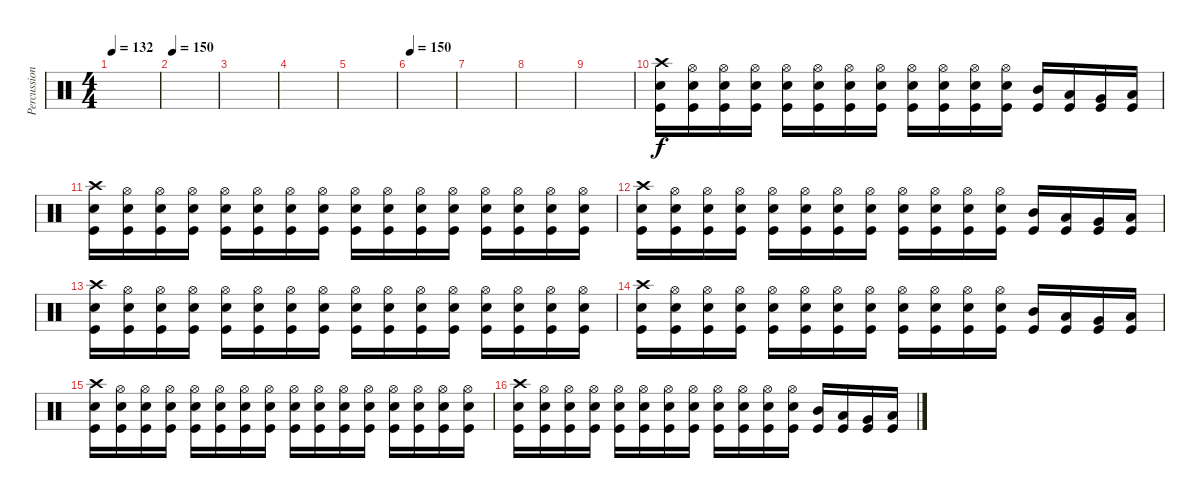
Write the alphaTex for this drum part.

\track ("Percussion" "Percussion") {instrument percussion}
\staff {score}
\articulation defaults
\ts (4 4)
\tempo 132
\clef neutral
\ks c
|
\tempo 150
|
|
|
|
\tempo 150
|
|
|
|
("Crash high (hit)" "Electric Snare (hit)" "Kick (hit)").16 ("Hi-Hat (open)" "Electric Snare (hit)" "Kick (hit)").16 ("Hi-Hat (open)" "Electric Snare (hit)" "Kick (hit)").16 ("Hi-Hat (open)" "Electric Snare (hit)" "Kick (hit)").16 ("Hi-Hat (open)" "Electric Snare (hit)" "Kick (hit)").16 ("Hi-Hat (open)" "Electric Snare (hit)" "Kick (hit)").16 ("Hi-Hat (open)" "Electric Snare (hit)" "Kick (hit)").16 ("Hi-Hat (open)" "Electric Snare (hit)" "Kick (hit)").16 ("Hi-Hat (open)" "Electric Snare (hit)" "Kick (hit)").16 ("Hi-Hat (open)" "Electric Snare (hit)" "Kick (hit)").16 ("Hi-Hat (open)" "Electric Snare (hit)" "Kick (hit)").16 ("Hi-Hat (open)" "Electric Snare (hit)" "Kick (hit)").16 ("Mid Tom (hit)" "Kick (hit)").16 ("Low Tom (hit)" "Kick (hit)").16 ("Very Low Tom (hit)" "Kick (hit)").16 ("Low Floor Tom (hit)" "Kick (hit)").16 |
("Crash high (hit)" "Electric Snare (hit)" "Kick (hit)").16 ("Hi-Hat (open)" "Electric Snare (hit)" "Kick (hit)").16 ("Hi-Hat (open)" "Electric Snare (hit)" "Kick (hit)").16 ("Hi-Hat (open)" "Electric Snare (hit)" "Kick (hit)").16 ("Hi-Hat (open)" "Electric Snare (hit)" "Kick (hit)").16 ("Hi-Hat (open)" "Electric Snare (hit)" "Kick (hit)").16 ("Hi-Hat (open)" "Electric Snare (hit)" "Kick (hit)").16 ("Hi-Hat (open)" "Electric Snare (hit)" "Kick (hit)").16 ("Hi-Hat (open)" "Electric Snare (hit)" "Kick (hit)").16 ("Hi-Hat (open)" "Electric Snare (hit)" "Kick (hit)").16 ("Hi-Hat (open)" "Electric Snare (hit)" "Kick (hit)").16 ("Hi-Hat (open)" "Electric Snare (hit)" "Kick (hit)").16 ("Hi-Hat (open)" "Electric Snare (hit)" "Kick (hit)").16 ("Hi-Hat (open)" "Electric Snare (hit)" "Kick (hit)").16 ("Hi-Hat (open)" "Electric Snare (hit)" "Kick (hit)").16 ("Hi-Hat (open)" "Electric Snare (hit)" "Kick (hit)").16 |
("Crash high (hit)" "Electric Snare (hit)" "Kick (hit)").16 ("Hi-Hat (open)" "Electric Snare (hit)" "Kick (hit)").16 ("Hi-Hat (open)" "Electric Snare (hit)" "Kick (hit)").16 ("Hi-Hat (open)" "Electric Snare (hit)" "Kick (hit)").16 ("Hi-Hat (open)" "Electric Snare (hit)" "Kick (hit)").16 ("Hi-Hat (open)" "Electric Snare (hit)" "Kick (hit)").16 ("Hi-Hat (open)" "Electric Snare (hit)" "Kick (hit)").16 ("Hi-Hat (open)" "Electric Snare (hit)" "Kick (hit)").16 ("Hi-Hat (open)" "Electric Snare (hit)" "Kick (hit)").16 ("Hi-Hat (open)" "Electric Snare (hit)" "Kick (hit)").16 ("Hi-Hat (open)" "Electric Snare (hit)" "Kick (hit)").16 ("Hi-Hat (open)" "Electric Snare (hit)" "Kick (hit)").16 ("Mid Tom (hit)" "Kick (hit)").16 ("Low Tom (hit)" "Kick (hit)").16 ("Very Low Tom (hit)" "Kick (hit)").16 ("Low Floor Tom (hit)" "Kick (hit)").16 |
("Crash high (hit)" "Electric Snare (hit)" "Kick (hit)").16 ("Hi-Hat (open)" "Electric Snare (hit)" "Kick (hit)").16 ("Hi-Hat (open)" "Electric Snare (hit)" "Kick (hit)").16 ("Hi-Hat (open)" "Electric Snare (hit)" "Kick (hit)").16 ("Hi-Hat (open)" "Electric Snare (hit)" "Kick (hit)").16 ("Hi-Hat (open)" "Electric Snare (hit)" "Kick (hit)").16 ("Hi-Hat (open)" "Electric Snare (hit)" "Kick (hit)").16 ("Hi-Hat (open)" "Electric Snare (hit)" "Kick (hit)").16 ("Hi-Hat (open)" "Electric Snare (hit)" "Kick (hit)").16 ("Hi-Hat (open)" "Electric Snare (hit)" "Kick (hit)").16 ("Hi-Hat (open)" "Electric Snare (hit)" "Kick (hit)").16 ("Hi-Hat (open)" "Electric Snare (hit)" "Kick (hit)").16 ("Hi-Hat (open)" "Electric Snare (hit)" "Kick (hit)").16 ("Hi-Hat (open)" "Electric Snare (hit)" "Kick (hit)").16 ("Hi-Hat (open)" "Electric Snare (hit)" "Kick (hit)").16 ("Hi-Hat (open)" "Electric Snare (hit)" "Kick (hit)").16 |
("Crash high (hit)" "Electric Snare (hit)" "Kick (hit)").16 ("Hi-Hat (open)" "Electric Snare (hit)" "Kick (hit)").16 ("Hi-Hat (open)" "Electric Snare (hit)" "Kick (hit)").16 ("Hi-Hat (open)" "Electric Snare (hit)" "Kick (hit)").16 ("Hi-Hat (open)" "Electric Snare (hit)" "Kick (hit)").16 ("Hi-Hat (open)" "Electric Snare (hit)" "Kick (hit)").16 ("Hi-Hat (open)" "Electric Snare (hit)" "Kick (hit)").16 ("Hi-Hat (open)" "Electric Snare (hit)" "Kick (hit)").16 ("Hi-Hat (open)" "Electric Snare (hit)" "Kick (hit)").16 ("Hi-Hat (open)" "Electric Snare (hit)" "Kick (hit)").16 ("Hi-Hat (open)" "Electric Snare (hit)" "Kick (hit)").16 ("Hi-Hat (open)" "Electric Snare (hit)" "Kick (hit)").16 ("Mid Tom (hit)" "Kick (hit)").16 ("Low Tom (hit)" "Kick (hit)").16 ("Very Low Tom (hit)" "Kick (hit)").16 ("Low Floor Tom (hit)" "Kick (hit)").16 |
("Crash high (hit)" "Electric Snare (hit)" "Kick (hit)").16 ("Hi-Hat (open)" "Electric Snare (hit)" "Kick (hit)").16 ("Hi-Hat (open)" "Electric Snare (hit)" "Kick (hit)").16 ("Hi-Hat (open)" "Electric Snare (hit)" "Kick (hit)").16 ("Hi-Hat (open)" "Electric Snare (hit)" "Kick (hit)").16 ("Hi-Hat (open)" "Electric Snare (hit)" "Kick (hit)").16 ("Hi-Hat (open)" "Electric Snare (hit)" "Kick (hit)").16 ("Hi-Hat (open)" "Electric Snare (hit)" "Kick (hit)").16 ("Hi-Hat (open)" "Electric Snare (hit)" "Kick (hit)").16 ("Hi-Hat (open)" "Electric Snare (hit)" "Kick (hit)").16 ("Hi-Hat (open)" "Electric Snare (hit)" "Kick (hit)").16 ("Hi-Hat (open)" "Electric Snare (hit)" "Kick (hit)").16 ("Hi-Hat (open)" "Electric Snare (hit)" "Kick (hit)").16 ("Hi-Hat (open)" "Electric Snare (hit)" "Kick (hit)").16 ("Hi-Hat (open)" "Electric Snare (hit)" "Kick (hit)").16 ("Hi-Hat (open)" "Electric Snare (hit)" "Kick (hit)").16 |
("Crash high (hit)" "Electric Snare (hit)" "Kick (hit)").16 ("Hi-Hat (open)" "Electric Snare (hit)" "Kick (hit)").16 ("Hi-Hat (open)" "Electric Snare (hit)" "Kick (hit)").16 ("Hi-Hat (open)" "Electric Snare (hit)" "Kick (hit)").16 ("Hi-Hat (open)" "Electric Snare (hit)" "Kick (hit)").16 ("Hi-Hat (open)" "Electric Snare (hit)" "Kick (hit)").16 ("Hi-Hat (open)" "Electric Snare (hit)" "Kick (hit)").16 ("Hi-Hat (open)" "Electric Snare (hit)" "Kick (hit)").16 ("Hi-Hat (open)" "Electric Snare (hit)" "Kick (hit)").16 ("Hi-Hat (open)" "Electric Snare (hit)" "Kick (hit)").16 ("Hi-Hat (open)" "Electric Snare (hit)" "Kick (hit)").16 ("Hi-Hat (open)" "Electric Snare (hit)" "Kick (hit)").16 ("Mid Tom (hit)" "Kick (hit)").16 ("Low Tom (hit)" "Kick (hit)").16 ("Very Low Tom (hit)" "Kick (hit)").16 ("Low Floor Tom (hit)" "Kick (hit)").16
